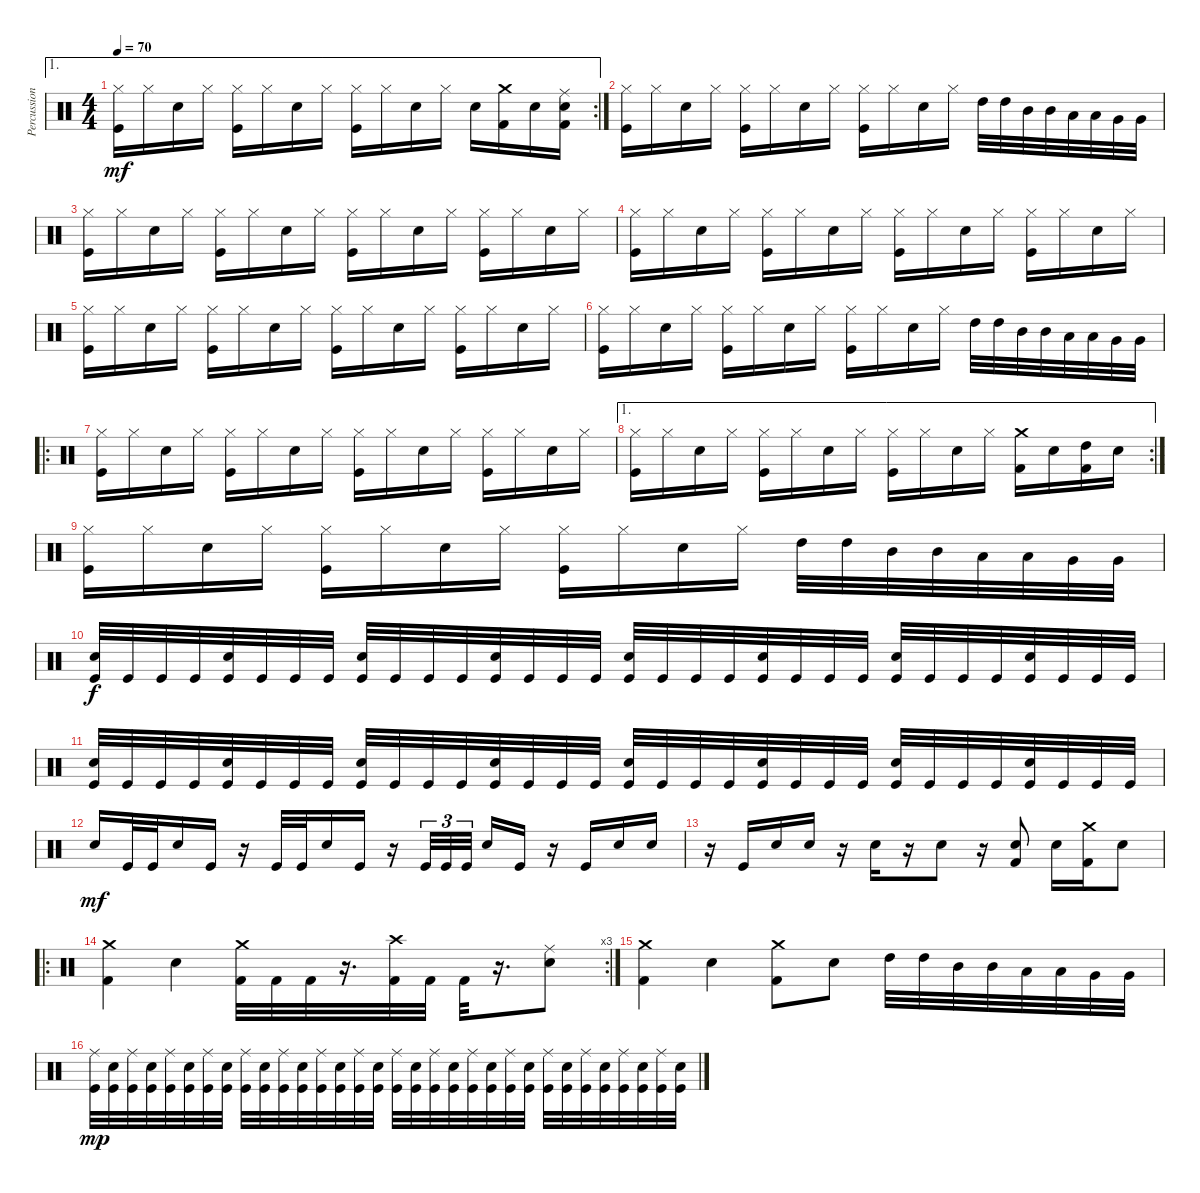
\track ("Percussion" "Percussion") {instrument percussion}
\staff {score}
\articulation defaults
\ae 1
\rc 2
\ts (4 4)
\tempo 70
\clef neutral
\ks c
("Kick (hit)" "Hi-Hat (closed)").16{dy mf} "Hi-Hat (closed)".16 "Electric Snare (hit)".16 "Hi-Hat (closed)".16 ("Kick (hit)" "Hi-Hat (closed)").16 "Hi-Hat (closed)".16 "Electric Snare (hit)".16 "Hi-Hat (closed)".16 ("Kick (hit)" "Hi-Hat (closed)").16 "Hi-Hat (closed)".16 "Electric Snare (hit)".16 "Hi-Hat (closed)".16 "Electric Snare (hit)".16 ("Crash medium (hit)" "Kick (hit) 2").16 "Electric Snare (hit)".16 ("Ride (middle)" "Electric Snare (hit)" "Kick (hit) 2").16 |
("Kick (hit)" "Hi-Hat (closed)").16 "Hi-Hat (closed)".16 "Electric Snare (hit)".16 "Hi-Hat (closed)".16 ("Kick (hit)" "Hi-Hat (closed)").16 "Hi-Hat (closed)".16 "Electric Snare (hit)".16 "Hi-Hat (closed)".16 ("Kick (hit)" "Hi-Hat (closed)").16 "Hi-Hat (closed)".16 "Electric Snare (hit)".16 "Hi-Hat (closed)".16 "High Tom (hit)".32 "High Tom (hit)".32 "Mid Tom (hit)".32 "Mid Tom (hit)".32 "Low Tom (hit)".32 "Low Tom (hit)".32 "Very Low Tom (hit)".32 "Very Low Tom (hit)".32 |
("Kick (hit)" "Hi-Hat (closed)").16 "Hi-Hat (closed)".16 "Electric Snare (hit)".16 "Hi-Hat (closed)".16 ("Kick (hit)" "Hi-Hat (closed)").16 "Hi-Hat (closed)".16 "Electric Snare (hit)".16 "Hi-Hat (closed)".16 ("Kick (hit)" "Hi-Hat (closed)").16 "Hi-Hat (closed)".16 "Electric Snare (hit)".16 "Hi-Hat (closed)".16 ("Kick (hit)" "Hi-Hat (closed)").16 "Hi-Hat (closed)".16 "Electric Snare (hit)".16 "Hi-Hat (closed)".16 |
("Kick (hit)" "Hi-Hat (closed)").16 "Hi-Hat (closed)".16 "Electric Snare (hit)".16 "Hi-Hat (closed)".16 ("Kick (hit)" "Hi-Hat (closed)").16 "Hi-Hat (closed)".16 "Electric Snare (hit)".16 "Hi-Hat (closed)".16 ("Kick (hit)" "Hi-Hat (closed)").16 "Hi-Hat (closed)".16 "Electric Snare (hit)".16 "Hi-Hat (closed)".16 ("Kick (hit)" "Hi-Hat (closed)").16 "Hi-Hat (closed)".16 "Electric Snare (hit)".16 "Hi-Hat (closed)".16 |
("Kick (hit)" "Hi-Hat (closed)").16 "Hi-Hat (closed)".16 "Electric Snare (hit)".16 "Hi-Hat (closed)".16 ("Kick (hit)" "Hi-Hat (closed)").16 "Hi-Hat (closed)".16 "Electric Snare (hit)".16 "Hi-Hat (closed)".16 ("Kick (hit)" "Hi-Hat (closed)").16 "Hi-Hat (closed)".16 "Electric Snare (hit)".16 "Hi-Hat (closed)".16 ("Kick (hit)" "Hi-Hat (closed)").16 "Hi-Hat (closed)".16 "Electric Snare (hit)".16 "Hi-Hat (closed)".16 |
("Kick (hit)" "Hi-Hat (closed)").16 "Hi-Hat (closed)".16 "Electric Snare (hit)".16 "Hi-Hat (closed)".16 ("Kick (hit)" "Hi-Hat (closed)").16 "Hi-Hat (closed)".16 "Electric Snare (hit)".16 "Hi-Hat (closed)".16 ("Kick (hit)" "Hi-Hat (closed)").16 "Hi-Hat (closed)".16 "Electric Snare (hit)".16 "Hi-Hat (closed)".16 "High Tom (hit)".32 "High Tom (hit)".32 "Mid Tom (hit)".32 "Mid Tom (hit)".32 "Low Tom (hit)".32 "Low Tom (hit)".32 "Very Low Tom (hit)".32 "Very Low Tom (hit)".32 |
\ro
("Kick (hit)" "Hi-Hat (closed)").16 "Hi-Hat (closed)".16 "Electric Snare (hit)".16 "Hi-Hat (closed)".16 ("Kick (hit)" "Hi-Hat (closed)").16 "Hi-Hat (closed)".16 "Electric Snare (hit)".16 "Hi-Hat (closed)".16 ("Kick (hit)" "Hi-Hat (closed)").16 "Hi-Hat (closed)".16 "Electric Snare (hit)".16 "Hi-Hat (closed)".16 ("Kick (hit)" "Hi-Hat (closed)").16 "Hi-Hat (closed)".16 "Electric Snare (hit)".16 "Hi-Hat (closed)".16 |
\ae 1
\rc 2
("Kick (hit)" "Hi-Hat (closed)").16 "Hi-Hat (closed)".16 "Electric Snare (hit)".16 "Hi-Hat (closed)".16 ("Kick (hit)" "Hi-Hat (closed)").16 "Hi-Hat (closed)".16 "Electric Snare (hit)".16 "Hi-Hat (closed)".16 ("Kick (hit)" "Hi-Hat (closed)").16 "Hi-Hat (closed)".16 "Electric Snare (hit)".16 "Hi-Hat (closed)".16 ("Crash medium (hit)" "Kick (hit) 2").16 "Electric Snare (hit)".16 ("High Tom (hit)" "Kick (hit) 2").16 "Electric Snare (hit)".16 |
("Kick (hit)" "Hi-Hat (closed)").16 "Hi-Hat (closed)".16 "Electric Snare (hit)".16 "Hi-Hat (closed)".16 ("Kick (hit)" "Hi-Hat (closed)").16 "Hi-Hat (closed)".16 "Electric Snare (hit)".16 "Hi-Hat (closed)".16 ("Kick (hit)" "Hi-Hat (closed)").16 "Hi-Hat (closed)".16 "Electric Snare (hit)".16 "Hi-Hat (closed)".16 "High Tom (hit)".32 "High Tom (hit)".32 "Mid Tom (hit)".32 "Mid Tom (hit)".32 "Low Tom (hit)".32 "Low Tom (hit)".32 "Very Low Tom (hit)".32 "Very Low Tom (hit)".32 |
("Electric Snare (hit)" "Kick (hit)").32{dy f} "Kick (hit)".32 "Kick (hit)".32 "Kick (hit)".32 ("Electric Snare (hit)" "Kick (hit)").32 "Kick (hit)".32 "Kick (hit)".32 "Kick (hit)".32 ("Electric Snare (hit)" "Kick (hit)").32 "Kick (hit)".32 "Kick (hit)".32 "Kick (hit)".32 ("Electric Snare (hit)" "Kick (hit)").32 "Kick (hit)".32 "Kick (hit)".32 "Kick (hit)".32 ("Electric Snare (hit)" "Kick (hit)").32 "Kick (hit)".32 "Kick (hit)".32 "Kick (hit)".32 ("Electric Snare (hit)" "Kick (hit)").32 "Kick (hit)".32 "Kick (hit)".32 "Kick (hit)".32 ("Electric Snare (hit)" "Kick (hit)").32 "Kick (hit)".32 "Kick (hit)".32 "Kick (hit)".32 ("Electric Snare (hit)" "Kick (hit)").32 "Kick (hit)".32 "Kick (hit)".32 "Kick (hit)".32 |
("Electric Snare (hit)" "Kick (hit)").32 "Kick (hit)".32 "Kick (hit)".32 "Kick (hit)".32 ("Electric Snare (hit)" "Kick (hit)").32 "Kick (hit)".32 "Kick (hit)".32 "Kick (hit)".32 ("Electric Snare (hit)" "Kick (hit)").32 "Kick (hit)".32 "Kick (hit)".32 "Kick (hit)".32 ("Electric Snare (hit)" "Kick (hit)").32 "Kick (hit)".32 "Kick (hit)".32 "Kick (hit)".32 ("Electric Snare (hit)" "Kick (hit)").32 "Kick (hit)".32 "Kick (hit)".32 "Kick (hit)".32 ("Electric Snare (hit)" "Kick (hit)").32 "Kick (hit)".32 "Kick (hit)".32 "Kick (hit)".32 ("Electric Snare (hit)" "Kick (hit)").32 "Kick (hit)".32 "Kick (hit)".32 "Kick (hit)".32 ("Electric Snare (hit)" "Kick (hit)").32 "Kick (hit)".32 "Kick (hit)".32 "Kick (hit)".32 |
"Electric Snare (hit)".16{dy mf} "Kick (hit)".32 "Kick (hit)".32 "Electric Snare (hit)".16 "Kick (hit)".16 r.16 "Kick (hit)".32 "Kick (hit)".32 "Electric Snare (hit)".16 "Kick (hit)".16 r.16 "Kick (hit)".32{tu (3 2)} "Kick (hit)".32{tu (3 2)} "Kick (hit)".32{tu (3 2) beam splitsecondary} "Electric Snare (hit)".16 "Kick (hit)".16 r.16 "Kick (hit)".16 "Electric Snare (hit)".16 "Electric Snare (hit)".16 |
r.16 "Kick (hit)".16 "Electric Snare (hit)".16 "Electric Snare (hit)".16 r.16 "Electric Snare (hit)".16 r.16 "Electric Snare (hit)".8 r.16 ("Electric Snare (hit)" "Kick (hit) 2").8 "Electric Snare (hit)".16 ("Crash medium (hit)" "Kick (hit) 2").16 "Electric Snare (hit)".8 |
\ro
\rc 3
("Crash medium (hit)" "Kick (hit) 2").4 "Electric Snare (hit)".4 ("Crash medium (hit)" "Kick (hit) 2").32 "Kick (hit) 2".32 "Kick (hit) 2".32 r.16{d} ("Crash high (hit)" "Kick (hit) 2").32 "Kick (hit) 2".32 "Kick (hit) 2".32 r.16{d} ("Ride (middle)" "Electric Snare (hit)").8 |
("Crash medium (hit)" "Kick (hit) 2").4 "Electric Snare (hit)".4 ("Crash medium (hit)" "Kick (hit) 2").8 "Electric Snare (hit)".8 "High Tom (hit)".32 "High Tom (hit)".32 "Mid Tom (hit)".32 "Mid Tom (hit)".32 "Low Tom (hit)".32 "Low Tom (hit)".32 "Very Low Tom (hit)".32 "Very Low Tom (hit)".32 |
("Ride (middle)" "Kick (hit)").32{dy mp} ("Electric Snare (hit)" "Kick (hit)").32 ("Ride (middle)" "Kick (hit)").32 ("Electric Snare (hit)" "Kick (hit)").32 ("Ride (middle)" "Kick (hit)").32 ("Electric Snare (hit)" "Kick (hit)").32 ("Ride (middle)" "Kick (hit)").32 ("Electric Snare (hit)" "Kick (hit)").32 ("Ride (middle)" "Kick (hit)").32 ("Electric Snare (hit)" "Kick (hit)").32 ("Ride (middle)" "Kick (hit)").32 ("Electric Snare (hit)" "Kick (hit)").32 ("Ride (middle)" "Kick (hit)").32 ("Electric Snare (hit)" "Kick (hit)").32 ("Ride (middle)" "Kick (hit)").32 ("Electric Snare (hit)" "Kick (hit)").32 ("Ride (middle)" "Kick (hit)").32 ("Electric Snare (hit)" "Kick (hit)").32 ("Ride (middle)" "Kick (hit)").32 ("Electric Snare (hit)" "Kick (hit)").32 ("Ride (middle)" "Kick (hit)").32 ("Electric Snare (hit)" "Kick (hit)").32 ("Ride (middle)" "Kick (hit)").32 ("Electric Snare (hit)" "Kick (hit)").32 ("Ride (middle)" "Kick (hit)").32 ("Electric Snare (hit)" "Kick (hit)").32 ("Ride (middle)" "Kick (hit)").32 ("Electric Snare (hit)" "Kick (hit)").32 ("Ride (middle)" "Kick (hit)").32 ("Electric Snare (hit)" "Kick (hit)").32 ("Ride (middle)" "Kick (hit)").32 ("Electric Snare (hit)" "Kick (hit)").32
